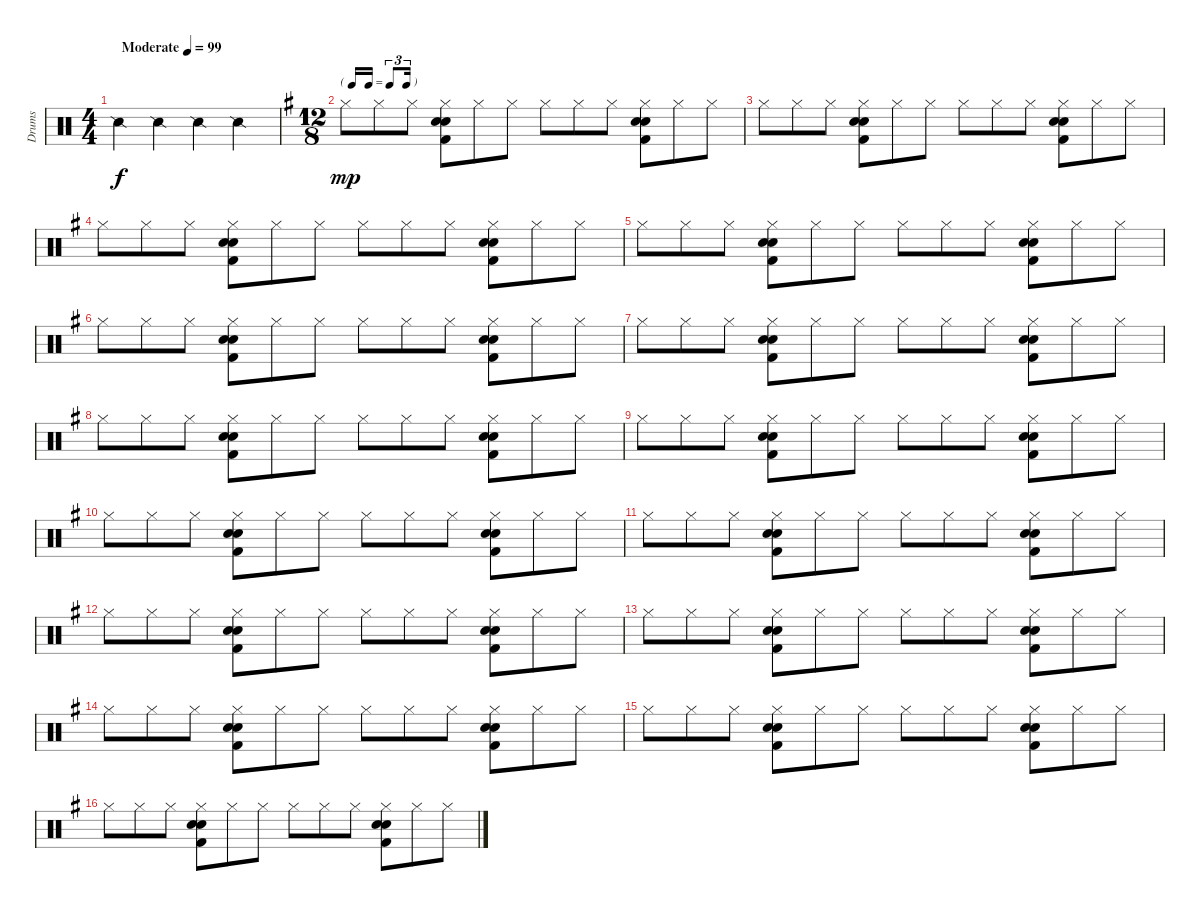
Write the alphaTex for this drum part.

\track ("Drums" "Drums") {instrument percussion}
\staff {score}
\articulation defaults
\ts (4 4)
\tempo (99 "Moderate")
\clef neutral
\ks c "Snare (side stick) 2".4{dy f} "Snare (side stick) 2".4 "Snare (side stick) 2".4 "Snare (side stick) 2".4
|
\ts (12 8)
\tf triplet16th
\ks g "Hi-Hat (closed)".8{dy mp} "Hi-Hat (closed)".8 "Hi-Hat (closed)".8
("Electric Snare (hit)" "Electric Snare (hit)" "Kick (hit) 2" "Hi-Hat (closed)").8 "Hi-Hat (closed)".8 "Hi-Hat (closed)".8 "Hi-Hat (closed)".8 "Hi-Hat (closed)".8 "Hi-Hat (closed)".8 ("Kick (hit) 2" "Electric Snare (hit)" "Electric Snare (hit)" "Hi-Hat (closed)").8 "Hi-Hat (closed)".8 "Hi-Hat (closed)".8 |
"Hi-Hat (closed)".8 "Hi-Hat (closed)".8 "Hi-Hat (closed)".8 ("Electric Snare (hit)" "Electric Snare (hit)" "Kick (hit) 2" "Hi-Hat (closed)").8 "Hi-Hat (closed)".8 "Hi-Hat (closed)".8 "Hi-Hat (closed)".8 "Hi-Hat (closed)".8 "Hi-Hat (closed)".8 ("Kick (hit) 2" "Electric Snare (hit)" "Electric Snare (hit)" "Hi-Hat (closed)").8 "Hi-Hat (closed)".8 "Hi-Hat (closed)".8 |
"Hi-Hat (closed)".8 "Hi-Hat (closed)".8 "Hi-Hat (closed)".8 ("Electric Snare (hit)" "Electric Snare (hit)" "Kick (hit) 2" "Hi-Hat (closed)").8 "Hi-Hat (closed)".8 "Hi-Hat (closed)".8 "Hi-Hat (closed)".8 "Hi-Hat (closed)".8 "Hi-Hat (closed)".8 ("Kick (hit) 2" "Electric Snare (hit)" "Electric Snare (hit)" "Hi-Hat (closed)").8 "Hi-Hat (closed)".8 "Hi-Hat (closed)".8 |
"Hi-Hat (closed)".8 "Hi-Hat (closed)".8 "Hi-Hat (closed)".8 ("Electric Snare (hit)" "Electric Snare (hit)" "Kick (hit) 2" "Hi-Hat (closed)").8 "Hi-Hat (closed)".8 "Hi-Hat (closed)".8 "Hi-Hat (closed)".8 "Hi-Hat (closed)".8 "Hi-Hat (closed)".8 ("Kick (hit) 2" "Electric Snare (hit)" "Electric Snare (hit)" "Hi-Hat (closed)").8 "Hi-Hat (closed)".8 "Hi-Hat (closed)".8 |
"Hi-Hat (closed)".8 "Hi-Hat (closed)".8 "Hi-Hat (closed)".8 ("Electric Snare (hit)" "Electric Snare (hit)" "Kick (hit) 2" "Hi-Hat (closed)").8 "Hi-Hat (closed)".8 "Hi-Hat (closed)".8 "Hi-Hat (closed)".8 "Hi-Hat (closed)".8 "Hi-Hat (closed)".8 ("Kick (hit) 2" "Electric Snare (hit)" "Electric Snare (hit)" "Hi-Hat (closed)").8 "Hi-Hat (closed)".8 "Hi-Hat (closed)".8 |
"Hi-Hat (closed)".8 "Hi-Hat (closed)".8 "Hi-Hat (closed)".8 ("Electric Snare (hit)" "Electric Snare (hit)" "Kick (hit) 2" "Hi-Hat (closed)").8 "Hi-Hat (closed)".8 "Hi-Hat (closed)".8 "Hi-Hat (closed)".8 "Hi-Hat (closed)".8 "Hi-Hat (closed)".8 ("Kick (hit) 2" "Electric Snare (hit)" "Electric Snare (hit)" "Hi-Hat (closed)").8 "Hi-Hat (closed)".8 "Hi-Hat (closed)".8 |
"Hi-Hat (closed)".8 "Hi-Hat (closed)".8 "Hi-Hat (closed)".8 ("Electric Snare (hit)" "Electric Snare (hit)" "Kick (hit) 2" "Hi-Hat (closed)").8 "Hi-Hat (closed)".8 "Hi-Hat (closed)".8 "Hi-Hat (closed)".8 "Hi-Hat (closed)".8 "Hi-Hat (closed)".8 ("Kick (hit) 2" "Electric Snare (hit)" "Electric Snare (hit)" "Hi-Hat (closed)").8 "Hi-Hat (closed)".8 "Hi-Hat (closed)".8 |
"Hi-Hat (closed)".8 "Hi-Hat (closed)".8 "Hi-Hat (closed)".8 ("Electric Snare (hit)" "Electric Snare (hit)" "Kick (hit) 2" "Hi-Hat (closed)").8 "Hi-Hat (closed)".8 "Hi-Hat (closed)".8 "Hi-Hat (closed)".8 "Hi-Hat (closed)".8 "Hi-Hat (closed)".8 ("Kick (hit) 2" "Electric Snare (hit)" "Electric Snare (hit)" "Hi-Hat (closed)").8 "Hi-Hat (closed)".8 "Hi-Hat (closed)".8 |
"Hi-Hat (closed)".8 "Hi-Hat (closed)".8 "Hi-Hat (closed)".8 ("Electric Snare (hit)" "Electric Snare (hit)" "Kick (hit) 2" "Hi-Hat (closed)").8 "Hi-Hat (closed)".8 "Hi-Hat (closed)".8 "Hi-Hat (closed)".8 "Hi-Hat (closed)".8 "Hi-Hat (closed)".8 ("Kick (hit) 2" "Electric Snare (hit)" "Electric Snare (hit)" "Hi-Hat (closed)").8 "Hi-Hat (closed)".8 "Hi-Hat (closed)".8 |
"Hi-Hat (closed)".8 "Hi-Hat (closed)".8 "Hi-Hat (closed)".8 ("Electric Snare (hit)" "Electric Snare (hit)" "Kick (hit) 2" "Hi-Hat (closed)").8 "Hi-Hat (closed)".8 "Hi-Hat (closed)".8 "Hi-Hat (closed)".8 "Hi-Hat (closed)".8 "Hi-Hat (closed)".8 ("Kick (hit) 2" "Electric Snare (hit)" "Electric Snare (hit)" "Hi-Hat (closed)").8 "Hi-Hat (closed)".8 "Hi-Hat (closed)".8 |
"Hi-Hat (closed)".8 "Hi-Hat (closed)".8 "Hi-Hat (closed)".8 ("Electric Snare (hit)" "Electric Snare (hit)" "Kick (hit) 2" "Hi-Hat (closed)").8 "Hi-Hat (closed)".8 "Hi-Hat (closed)".8 "Hi-Hat (closed)".8 "Hi-Hat (closed)".8 "Hi-Hat (closed)".8 ("Kick (hit) 2" "Electric Snare (hit)" "Electric Snare (hit)" "Hi-Hat (closed)").8 "Hi-Hat (closed)".8 "Hi-Hat (closed)".8 |
"Hi-Hat (closed)".8 "Hi-Hat (closed)".8 "Hi-Hat (closed)".8 ("Electric Snare (hit)" "Electric Snare (hit)" "Kick (hit) 2" "Hi-Hat (closed)").8 "Hi-Hat (closed)".8 "Hi-Hat (closed)".8 "Hi-Hat (closed)".8 "Hi-Hat (closed)".8 "Hi-Hat (closed)".8 ("Kick (hit) 2" "Electric Snare (hit)" "Electric Snare (hit)" "Hi-Hat (closed)").8 "Hi-Hat (closed)".8 "Hi-Hat (closed)".8 |
"Hi-Hat (closed)".8 "Hi-Hat (closed)".8 "Hi-Hat (closed)".8 ("Electric Snare (hit)" "Electric Snare (hit)" "Kick (hit) 2" "Hi-Hat (closed)").8 "Hi-Hat (closed)".8 "Hi-Hat (closed)".8 "Hi-Hat (closed)".8 "Hi-Hat (closed)".8 "Hi-Hat (closed)".8 ("Kick (hit) 2" "Electric Snare (hit)" "Electric Snare (hit)" "Hi-Hat (closed)").8 "Hi-Hat (closed)".8 "Hi-Hat (closed)".8 |
"Hi-Hat (closed)".8 "Hi-Hat (closed)".8 "Hi-Hat (closed)".8 ("Electric Snare (hit)" "Electric Snare (hit)" "Kick (hit) 2" "Hi-Hat (closed)").8 "Hi-Hat (closed)".8 "Hi-Hat (closed)".8 "Hi-Hat (closed)".8 "Hi-Hat (closed)".8 "Hi-Hat (closed)".8 ("Kick (hit) 2" "Electric Snare (hit)" "Electric Snare (hit)" "Hi-Hat (closed)").8 "Hi-Hat (closed)".8 "Hi-Hat (closed)".8 |
"Hi-Hat (closed)".8 "Hi-Hat (closed)".8 "Hi-Hat (closed)".8 ("Electric Snare (hit)" "Electric Snare (hit)" "Kick (hit) 2" "Hi-Hat (closed)").8 "Hi-Hat (closed)".8 "Hi-Hat (closed)".8 "Hi-Hat (closed)".8 "Hi-Hat (closed)".8 "Hi-Hat (closed)".8 ("Kick (hit) 2" "Electric Snare (hit)" "Electric Snare (hit)" "Hi-Hat (closed)").8 "Hi-Hat (closed)".8 "Hi-Hat (closed)".8
